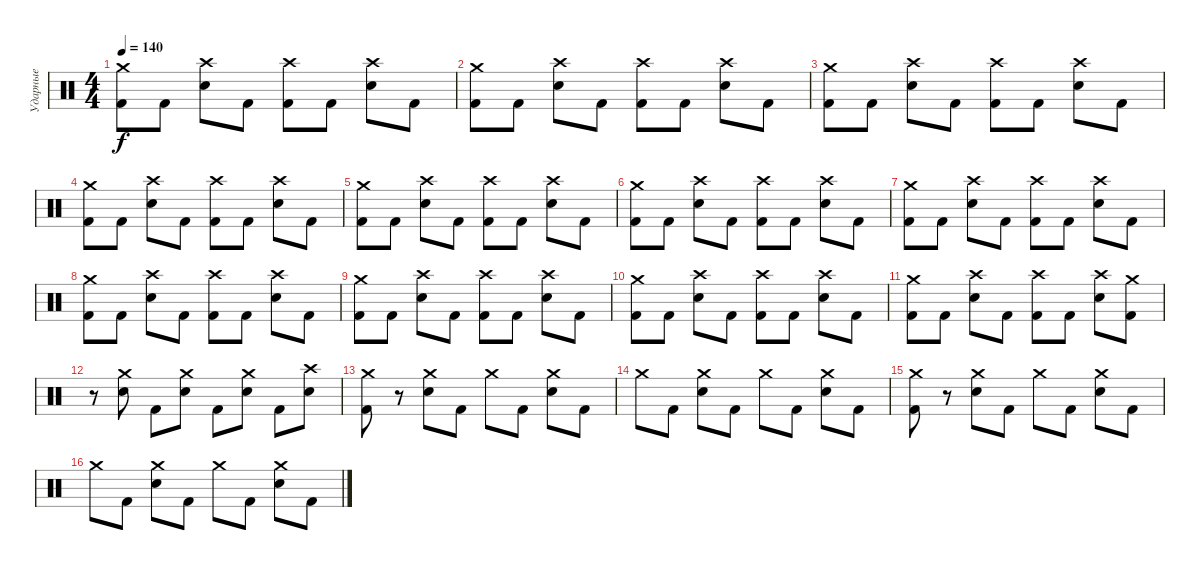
\track ("Ударные" "Ударные") {instrument percussion}
\staff {score}
\articulation defaults
\ts (4 4)
\tempo 140
\clef neutral
\ks c
("Crash medium (hit)" "Kick (hit) 2").8{dy f} "Kick (hit) 2".8 ("Crash high (hit)" "Electric Snare (hit)").8 "Kick (hit) 2".8 ("Crash high (hit)" "Kick (hit) 2").8 "Kick (hit) 2".8 ("Crash high (hit)" "Electric Snare (hit)").8 "Kick (hit) 2".8 |
("Crash medium (hit)" "Kick (hit) 2").8 "Kick (hit) 2".8 ("Crash high (hit)" "Electric Snare (hit)").8 "Kick (hit) 2".8 ("Crash high (hit)" "Kick (hit) 2").8 "Kick (hit) 2".8 ("Crash high (hit)" "Electric Snare (hit)").8 "Kick (hit) 2".8 |
("Crash medium (hit)" "Kick (hit) 2").8 "Kick (hit) 2".8 ("Crash high (hit)" "Electric Snare (hit)").8 "Kick (hit) 2".8 ("Crash high (hit)" "Kick (hit) 2").8 "Kick (hit) 2".8 ("Crash high (hit)" "Electric Snare (hit)").8 "Kick (hit) 2".8 |
("Crash medium (hit)" "Kick (hit) 2").8 "Kick (hit) 2".8 ("Crash high (hit)" "Electric Snare (hit)").8 "Kick (hit) 2".8 ("Crash high (hit)" "Kick (hit) 2").8 "Kick (hit) 2".8 ("Crash high (hit)" "Electric Snare (hit)").8 "Kick (hit) 2".8 |
("Crash medium (hit)" "Kick (hit) 2").8 "Kick (hit) 2".8 ("Crash high (hit)" "Electric Snare (hit)").8 "Kick (hit) 2".8 ("Crash high (hit)" "Kick (hit) 2").8 "Kick (hit) 2".8 ("Crash high (hit)" "Electric Snare (hit)").8 "Kick (hit) 2".8 |
("Crash medium (hit)" "Kick (hit) 2").8 "Kick (hit) 2".8 ("Crash high (hit)" "Electric Snare (hit)").8 "Kick (hit) 2".8 ("Crash high (hit)" "Kick (hit) 2").8 "Kick (hit) 2".8 ("Crash high (hit)" "Electric Snare (hit)").8 "Kick (hit) 2".8 |
("Crash medium (hit)" "Kick (hit) 2").8 "Kick (hit) 2".8 ("Crash high (hit)" "Electric Snare (hit)").8 "Kick (hit) 2".8 ("Crash high (hit)" "Kick (hit) 2").8 "Kick (hit) 2".8 ("Crash high (hit)" "Electric Snare (hit)").8 "Kick (hit) 2".8 |
("Crash medium (hit)" "Kick (hit) 2").8 "Kick (hit) 2".8 ("Crash high (hit)" "Electric Snare (hit)").8 "Kick (hit) 2".8 ("Crash high (hit)" "Kick (hit) 2").8 "Kick (hit) 2".8 ("Crash high (hit)" "Electric Snare (hit)").8 "Kick (hit) 2".8 |
("Crash medium (hit)" "Kick (hit) 2").8 "Kick (hit) 2".8 ("Crash high (hit)" "Electric Snare (hit)").8 "Kick (hit) 2".8 ("Crash high (hit)" "Kick (hit) 2").8 "Kick (hit) 2".8 ("Crash high (hit)" "Electric Snare (hit)").8 "Kick (hit) 2".8 |
("Crash medium (hit)" "Kick (hit) 2").8 "Kick (hit) 2".8 ("Crash high (hit)" "Electric Snare (hit)").8 "Kick (hit) 2".8 ("Crash high (hit)" "Kick (hit) 2").8 "Kick (hit) 2".8 ("Crash high (hit)" "Electric Snare (hit)").8 "Kick (hit) 2".8 |
("Crash medium (hit)" "Kick (hit) 2").8 "Kick (hit) 2".8 ("Crash high (hit)" "Electric Snare (hit)").8 "Kick (hit) 2".8 ("Crash high (hit)" "Kick (hit) 2").8 "Kick (hit) 2".8 ("Crash high (hit)" "Electric Snare (hit)").8 ("Crash medium (hit)" "Kick (hit) 2").8 |
r.8 ("Crash medium (hit)" "Electric Snare (hit)").8 "Kick (hit) 2".8 ("Crash medium (hit)" "Electric Snare (hit)").8 "Kick (hit) 2".8 ("Crash medium (hit)" "Electric Snare (hit)").8 "Kick (hit) 2".8 ("Crash high (hit)" "Electric Snare (hit)").8 |
("Crash medium (hit)" "Kick (hit) 2").8 r.8 ("Crash medium (hit)" "Electric Snare (hit)").8 "Kick (hit) 2".8 "Crash medium (hit)".8 "Kick (hit) 2".8 ("Crash medium (hit)" "Electric Snare (hit)").8 "Kick (hit) 2".8 |
"Crash medium (hit)".8 "Kick (hit) 2".8 ("Crash medium (hit)" "Electric Snare (hit)").8 "Kick (hit) 2".8 "Crash medium (hit)".8 "Kick (hit) 2".8 ("Crash medium (hit)" "Electric Snare (hit)").8 "Kick (hit) 2".8 |
("Crash medium (hit)" "Kick (hit) 2").8 r.8 ("Crash medium (hit)" "Electric Snare (hit)").8 "Kick (hit) 2".8 "Crash medium (hit)".8 "Kick (hit) 2".8 ("Crash medium (hit)" "Electric Snare (hit)").8 "Kick (hit) 2".8 |
"Crash medium (hit)".8 "Kick (hit) 2".8 ("Crash medium (hit)" "Electric Snare (hit)").8 "Kick (hit) 2".8 "Crash medium (hit)".8 "Kick (hit) 2".8 ("Crash medium (hit)" "Electric Snare (hit)").8 "Kick (hit) 2".8
